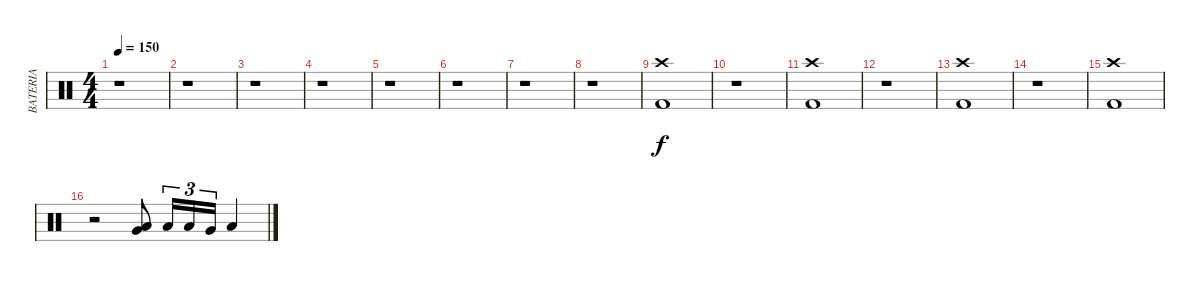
\track ("BATERIA" "BATERIA") {instrument percussion}
\staff {score}
\articulation defaults
\ts (4 4)
\tempo 150
\clef neutral
\ks c
r.1{dy f} |
r.1 |
r.1 |
r.1 |
r.1 |
r.1 |
r.1 |
r.1 |
("Crash high (hit)" "Kick (hit) 2").1 |
r.1 |
("Crash high (hit)" "Kick (hit) 2").1 |
r.1 |
("Crash high (hit)" "Kick (hit) 2").1 |
r.1 |
("Crash high (hit)" "Kick (hit) 2").1 |
r.2 ("Low Floor Tom (hit)" "Very Low Tom (hit)").8 "Low Tom (hit)".16{tu (3 2)} "Low Tom (hit)".16{tu (3 2)} "Very Low Tom (hit)".16{tu (3 2)} "Low Floor Tom (hit)".4
